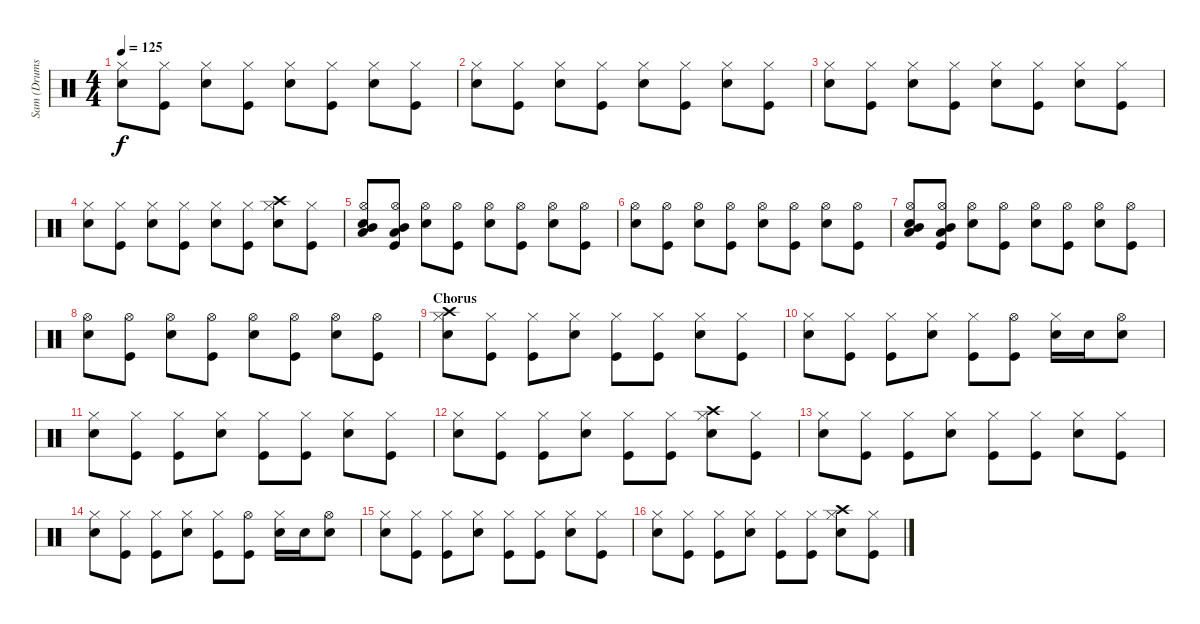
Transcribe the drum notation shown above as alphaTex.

\track ("Sam (Drums)" "Sam (Drums") {instrument percussion}
\staff {score}
\articulation defaults
\ts (4 4)
\tempo 125
\clef neutral
\ks c
("Hi-Hat (closed)" "Snare (hit) 2").8{dy f} ("Hi-Hat (closed)" "Kick (hit)").8 ("Hi-Hat (closed)" "Snare (hit) 2").8 ("Hi-Hat (closed)" "Kick (hit)").8 ("Hi-Hat (closed)" "Snare (hit) 2").8 ("Hi-Hat (closed)" "Kick (hit)").8 ("Hi-Hat (closed)" "Snare (hit) 2").8 ("Hi-Hat (closed)" "Kick (hit)").8 |
("Hi-Hat (closed)" "Snare (hit) 2").8 ("Hi-Hat (closed)" "Kick (hit)").8 ("Hi-Hat (closed)" "Snare (hit) 2").8 ("Hi-Hat (closed)" "Kick (hit)").8 ("Hi-Hat (closed)" "Snare (hit) 2").8 ("Hi-Hat (closed)" "Kick (hit)").8 ("Hi-Hat (closed)" "Snare (hit) 2").8 ("Hi-Hat (closed)" "Kick (hit)").8 |
("Hi-Hat (closed)" "Snare (hit) 2").8 ("Hi-Hat (closed)" "Kick (hit)").8 ("Hi-Hat (closed)" "Snare (hit) 2").8 ("Hi-Hat (closed)" "Kick (hit)").8 ("Hi-Hat (closed)" "Snare (hit) 2").8 ("Hi-Hat (closed)" "Kick (hit)").8 ("Hi-Hat (closed)" "Snare (hit) 2").8 ("Hi-Hat (closed)" "Kick (hit)").8 |
("Hi-Hat (closed)" "Snare (hit) 2").8 ("Hi-Hat (closed)" "Kick (hit)").8 ("Hi-Hat (closed)" "Snare (hit) 2").8 ("Hi-Hat (closed)" "Kick (hit)").8 ("Hi-Hat (closed)" "Snare (hit) 2").8 ("Hi-Hat (closed)" "Kick (hit)").8 ("Crash high (hit)" "Hi-Hat (closed)" "Snare (hit) 2").8 ("Hi-Hat (closed)" "Kick (hit)").8 |
("Hi-Hat (open)" "Low Tom (hit)" "Mid Tom (hit)" "Snare (hit) 2").8 ("Hi-Hat (open)" "Low Tom (hit)" "Mid Tom (hit)" "Kick (hit)").8 ("Hi-Hat (open)" "Snare (hit) 2").8 ("Hi-Hat (open)" "Kick (hit)").8 ("Hi-Hat (open)" "Snare (hit) 2").8 ("Hi-Hat (open)" "Kick (hit)").8 ("Hi-Hat (open)" "Snare (hit) 2").8 ("Hi-Hat (open)" "Kick (hit)").8 |
("Hi-Hat (open)" "Snare (hit) 2").8 ("Hi-Hat (open)" "Kick (hit)").8 ("Hi-Hat (open)" "Snare (hit) 2").8 ("Hi-Hat (open)" "Kick (hit)").8 ("Hi-Hat (open)" "Snare (hit) 2").8 ("Hi-Hat (open)" "Kick (hit)").8 ("Hi-Hat (open)" "Snare (hit) 2").8 ("Hi-Hat (open)" "Kick (hit)").8 |
("Hi-Hat (open)" "Low Tom (hit)" "Mid Tom (hit)" "Snare (hit) 2").8 ("Hi-Hat (open)" "Low Tom (hit)" "Mid Tom (hit)" "Kick (hit)").8 ("Hi-Hat (open)" "Snare (hit) 2").8 ("Hi-Hat (open)" "Kick (hit)").8 ("Hi-Hat (open)" "Snare (hit) 2").8 ("Hi-Hat (open)" "Kick (hit)").8 ("Hi-Hat (open)" "Snare (hit) 2").8 ("Hi-Hat (open)" "Kick (hit)").8 |
("Hi-Hat (open)" "Snare (hit) 2").8 ("Hi-Hat (open)" "Kick (hit)").8 ("Hi-Hat (open)" "Snare (hit) 2").8 ("Hi-Hat (open)" "Kick (hit)").8 ("Hi-Hat (open)" "Snare (hit) 2").8 ("Hi-Hat (open)" "Kick (hit)").8 ("Hi-Hat (open)" "Snare (hit) 2").8 ("Hi-Hat (open)" "Kick (hit)").8 |
\section ("" "Chorus")
("Crash high (hit)" "Hi-Hat (closed)" "Snare (hit) 2").8{volume 16} ("Hi-Hat (closed)" "Kick (hit)").8 ("Hi-Hat (closed)" "Kick (hit)").8 ("Hi-Hat (closed)" "Snare (hit) 2").8 ("Hi-Hat (closed)" "Kick (hit)").8 ("Hi-Hat (closed)" "Kick (hit)").8 ("Hi-Hat (closed)" "Snare (hit) 2").8 ("Hi-Hat (closed)" "Kick (hit)").8 |
("Hi-Hat (closed)" "Snare (hit) 2").8 ("Hi-Hat (closed)" "Kick (hit)").8 ("Hi-Hat (closed)" "Kick (hit)").8 ("Hi-Hat (closed)" "Snare (hit) 2").8 ("Hi-Hat (closed)" "Kick (hit)").8 ("Hi-Hat (open)" "Kick (hit)").8 ("Hi-Hat (closed)" "Snare (hit) 2").16 "Snare (hit) 2".16 ("Hi-Hat (open)" "Snare (hit) 2").8 |
("Hi-Hat (closed)" "Snare (hit) 2").8 ("Hi-Hat (closed)" "Kick (hit)").8 ("Hi-Hat (closed)" "Kick (hit)").8 ("Hi-Hat (closed)" "Snare (hit) 2").8 ("Hi-Hat (closed)" "Kick (hit)").8 ("Hi-Hat (closed)" "Kick (hit)").8 ("Hi-Hat (closed)" "Snare (hit) 2").8 ("Hi-Hat (closed)" "Kick (hit)").8 |
("Hi-Hat (closed)" "Snare (hit) 2").8 ("Hi-Hat (closed)" "Kick (hit)").8 ("Hi-Hat (closed)" "Kick (hit)").8 ("Hi-Hat (closed)" "Snare (hit) 2").8 ("Hi-Hat (closed)" "Kick (hit)").8 ("Hi-Hat (closed)" "Kick (hit)").8 ("Crash high (hit)" "Hi-Hat (closed)" "Snare (hit) 2").8 ("Hi-Hat (closed)" "Kick (hit)").8 |
("Hi-Hat (closed)" "Snare (hit) 2").8 ("Hi-Hat (closed)" "Kick (hit)").8 ("Hi-Hat (closed)" "Kick (hit)").8 ("Hi-Hat (closed)" "Snare (hit) 2").8 ("Hi-Hat (closed)" "Kick (hit)").8 ("Hi-Hat (closed)" "Kick (hit)").8 ("Hi-Hat (closed)" "Snare (hit) 2").8 ("Hi-Hat (closed)" "Kick (hit)").8 |
("Hi-Hat (closed)" "Snare (hit) 2").8 ("Hi-Hat (closed)" "Kick (hit)").8 ("Hi-Hat (closed)" "Kick (hit)").8 ("Hi-Hat (closed)" "Snare (hit) 2").8 ("Hi-Hat (closed)" "Kick (hit)").8 ("Hi-Hat (open)" "Kick (hit)").8 ("Hi-Hat (closed)" "Snare (hit) 2").16 "Snare (hit) 2".16 ("Hi-Hat (open)" "Snare (hit) 2").8 |
("Hi-Hat (closed)" "Snare (hit) 2").8 ("Hi-Hat (closed)" "Kick (hit)").8 ("Hi-Hat (closed)" "Kick (hit)").8 ("Hi-Hat (closed)" "Snare (hit) 2").8 ("Hi-Hat (closed)" "Kick (hit)").8 ("Hi-Hat (closed)" "Kick (hit)").8 ("Hi-Hat (closed)" "Snare (hit) 2").8 ("Hi-Hat (closed)" "Kick (hit)").8 |
("Hi-Hat (closed)" "Snare (hit) 2").8 ("Hi-Hat (closed)" "Kick (hit)").8 ("Hi-Hat (closed)" "Kick (hit)").8 ("Hi-Hat (closed)" "Snare (hit) 2").8 ("Hi-Hat (closed)" "Kick (hit)").8 ("Hi-Hat (closed)" "Kick (hit)").8 ("Crash high (hit)" "Hi-Hat (closed)" "Snare (hit) 2").8 ("Hi-Hat (closed)" "Kick (hit)").8
